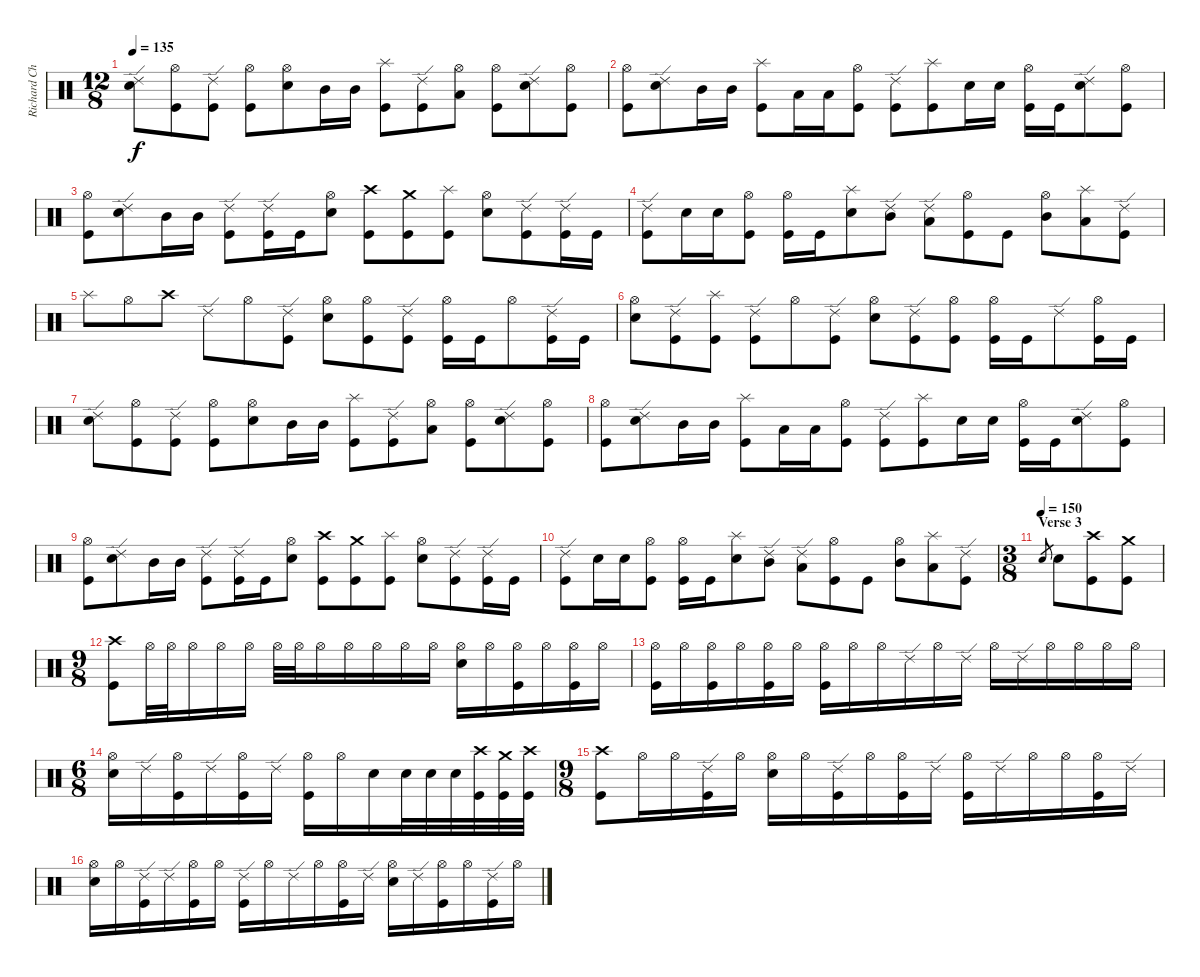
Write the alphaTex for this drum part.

\track ("Richard Christy " "Richard Ch") {instrument percussion}
\staff {score}
\articulation defaults
\ts (12 8)
\tempo 135
\clef neutral
\ks c
("Ride (edge) 2" "Electric Snare (hit)").8{dy f} ("Hi-Hat (open)" "Kick (hit)").8 ("Ride (edge) 2" "Kick (hit)").8 ("Hi-Hat (open)" "Kick (hit)").8 ("Hi-Hat (open)" "Electric Snare (hit)").8 "Mid Tom (hit)".16 "Mid Tom (hit)".16 ("Splash (hit)" "Kick (hit)").8 ("Ride (edge) 2" "Kick (hit)").8 ("Hi-Hat (open)" "Low Tom (hit)").8 ("Hi-Hat (open)" "Kick (hit)").8 ("Ride (edge) 2" "Electric Snare (hit)").8 ("Hi-Hat (open)" "Kick (hit)").8 |
("Hi-Hat (open)" "Kick (hit)").8 ("Ride (edge) 2" "Electric Snare (hit)").8 "Mid Tom (hit)".16 "Mid Tom (hit)".16 ("Splash (hit)" "Kick (hit)").8 "Low Tom (hit)".16 "Low Tom (hit)".16 ("Hi-Hat (open)" "Kick (hit)").8 ("Ride (edge) 2" "Kick (hit)").8 ("Splash (hit)" "Kick (hit)").8 "Electric Snare (hit)".16 "Electric Snare (hit)".16 ("Hi-Hat (open)" "Kick (hit)").16 "Kick (hit)".16 ("Ride (edge) 2" "Electric Snare (hit)").8 ("Hi-Hat (open)" "Kick (hit)").8 |
("Hi-Hat (open)" "Kick (hit)").8 ("Ride (edge) 2" "Electric Snare (hit)").8 "Mid Tom (hit)".16 "Mid Tom (hit)".16 ("Ride (edge) 2" "Kick (hit)").8 ("Ride (edge) 2" "Kick (hit)").16 "Kick (hit)".16 ("Hi-Hat (open)" "Electric Snare (hit)").8 ("Crash high (hit)" "Kick (hit)").8 ("Crash medium (hit)" "Kick (hit)").8 ("Splash (hit)" "Kick (hit)").8 ("Hi-Hat (open)" "Electric Snare (hit)").8 ("Ride (edge) 2" "Kick (hit)").8 ("Ride (edge) 2" "Kick (hit)").16 "Kick (hit)".16 |
("Ride (edge) 2" "Kick (hit)").8 "Electric Snare (hit)".16 "Electric Snare (hit)".16 ("Hi-Hat (open)" "Kick (hit)").8 ("Hi-Hat (open)" "Kick (hit)").16 "Kick (hit)".16 ("Splash (hit)" "Electric Snare (hit)").8 ("Ride (edge) 2" "Mid Tom (hit)").8 ("Ride (edge) 2" "Low Tom (hit)").8 ("Hi-Hat (open)" "Kick (hit)").8 "Kick (hit)".8 ("Hi-Hat (open)" "Mid Tom (hit)").8 ("Splash (hit)" "Low Tom (hit)").8 ("Ride (edge) 2" "Kick (hit)").8 |
"Splash (hit)".8 "Hi-Hat (open)".8 "Crash high (hit)".8 "Ride (edge) 2".8 "Hi-Hat (open)".8 ("Ride (edge) 2" "Kick (hit)").8 ("Hi-Hat (open)" "Electric Snare (hit)").8 ("Hi-Hat (open)" "Kick (hit)").8 ("Ride (edge) 2" "Kick (hit)").8 ("Hi-Hat (open)" "Kick (hit)").16 "Kick (hit)".16 "Hi-Hat (open)".8 ("Ride (edge) 2" "Kick (hit)").16 "Kick (hit)".16 |
("Hi-Hat (open)" "Electric Snare (hit)").8 ("Ride (edge) 2" "Kick (hit)").8 ("Splash (hit)" "Kick (hit)").8 ("Ride (edge) 2" "Kick (hit)").8 "Hi-Hat (open)".8 ("Ride (edge) 2" "Kick (hit)").8 ("Hi-Hat (open)" "Electric Snare (hit)").8 ("Ride (edge) 2" "Kick (hit)").8 ("Hi-Hat (open)" "Kick (hit)").8 ("Hi-Hat (open)" "Kick (hit)").16 "Kick (hit)".16 "Ride (edge) 2".8 ("Hi-Hat (open)" "Kick (hit)").16 "Kick (hit)".16 |
("Ride (edge) 2" "Electric Snare (hit)").8 ("Hi-Hat (open)" "Kick (hit)").8 ("Ride (edge) 2" "Kick (hit)").8 ("Hi-Hat (open)" "Kick (hit)").8 ("Hi-Hat (open)" "Electric Snare (hit)").8 "Mid Tom (hit)".16 "Mid Tom (hit)".16 ("Splash (hit)" "Kick (hit)").8 ("Ride (edge) 2" "Kick (hit)").8 ("Hi-Hat (open)" "Low Tom (hit)").8 ("Hi-Hat (open)" "Kick (hit)").8 ("Ride (edge) 2" "Electric Snare (hit)").8 ("Hi-Hat (open)" "Kick (hit)").8 |
("Hi-Hat (open)" "Kick (hit)").8 ("Ride (edge) 2" "Electric Snare (hit)").8 "Mid Tom (hit)".16 "Mid Tom (hit)".16 ("Splash (hit)" "Kick (hit)").8 "Low Tom (hit)".16 "Low Tom (hit)".16 ("Hi-Hat (open)" "Kick (hit)").8 ("Ride (edge) 2" "Kick (hit)").8 ("Splash (hit)" "Kick (hit)").8 "Electric Snare (hit)".16 "Electric Snare (hit)".16 ("Hi-Hat (open)" "Kick (hit)").16 "Kick (hit)".16 ("Ride (edge) 2" "Electric Snare (hit)").8 ("Hi-Hat (open)" "Kick (hit)").8 |
("Hi-Hat (open)" "Kick (hit)").8 ("Ride (edge) 2" "Electric Snare (hit)").8 "Mid Tom (hit)".16 "Mid Tom (hit)".16 ("Ride (edge) 2" "Kick (hit)").8 ("Ride (edge) 2" "Kick (hit)").16 "Kick (hit)".16 ("Hi-Hat (open)" "Electric Snare (hit)").8 ("Crash high (hit)" "Kick (hit)").8 ("Crash medium (hit)" "Kick (hit)").8 ("Splash (hit)" "Kick (hit)").8 ("Hi-Hat (open)" "Electric Snare (hit)").8 ("Ride (edge) 2" "Kick (hit)").8 ("Ride (edge) 2" "Kick (hit)").16 "Kick (hit)".16 |
("Ride (edge) 2" "Kick (hit)").8 "Electric Snare (hit)".16 "Electric Snare (hit)".16 ("Hi-Hat (open)" "Kick (hit)").8 ("Hi-Hat (open)" "Kick (hit)").16 "Kick (hit)".16 ("Splash (hit)" "Electric Snare (hit)").8 ("Ride (edge) 2" "Mid Tom (hit)").8 ("Ride (edge) 2" "Low Tom (hit)").8 ("Hi-Hat (open)" "Kick (hit)").8 "Kick (hit)".8 ("Hi-Hat (open)" "Mid Tom (hit)").8 ("Splash (hit)" "Low Tom (hit)").8 ("Ride (edge) 2" "Kick (hit)").8 |
\ts (3 8)
\section ("" "Verse 3")
\tempo (150)
"Electric Snare (hit)".8{gr} "Electric Snare (hit)".8 ("Crash high (hit)" "Kick (hit)").8 ("Crash medium (hit)" "Kick (hit)").8 |
\ts (9 8)
("Crash high (hit)" "Kick (hit)").8 "Hi-Hat (open)".32 "Hi-Hat (open)".32 "Hi-Hat (open)".16 "Hi-Hat (open)".16 "Hi-Hat (open)".16 "Hi-Hat (open)".32 "Hi-Hat (open)".32 "Hi-Hat (open)".16 "Hi-Hat (open)".16 "Hi-Hat (open)".16 "Hi-Hat (open)".16 "Hi-Hat (open)".16 ("Hi-Hat (open)" "Electric Snare (hit)").16 "Hi-Hat (open)".16 ("Hi-Hat (open)" "Kick (hit)").16 "Hi-Hat (open)".16 ("Hi-Hat (open)" "Kick (hit)").16 "Hi-Hat (open)".16 |
("Hi-Hat (open)" "Kick (hit)").16 "Hi-Hat (open)".16 ("Hi-Hat (open)" "Kick (hit)").16 "Hi-Hat (open)".16 ("Hi-Hat (open)" "Kick (hit)").16 "Hi-Hat (open)".16 ("Hi-Hat (open)" "Kick (hit)").16 "Hi-Hat (open)".16 "Hi-Hat (open)".16 "Ride (edge) 2".16 "Hi-Hat (open)".16 "Ride (edge) 2".16 "Hi-Hat (open)".16 "Ride (edge) 2".16 "Hi-Hat (open)".16 "Hi-Hat (open)".16 "Hi-Hat (open)".16 "Hi-Hat (open)".16 |
\ts (6 8)
("Hi-Hat (open)" "Electric Snare (hit)").16 "Ride (edge) 2".16 ("Hi-Hat (open)" "Kick (hit)").16 "Ride (edge) 2".16 ("Hi-Hat (open)" "Kick (hit)").16 "Ride (edge) 2".16 ("Hi-Hat (open)" "Kick (hit)").16 "Hi-Hat (open)".16 "Electric Snare (hit)".16 "Electric Snare (hit)".32 "Electric Snare (hit)".32 "Electric Snare (hit)".32 ("Crash high (hit)" "Kick (hit)").32 ("Crash medium (hit)" "Kick (hit)").32 ("Crash high (hit)" "Kick (hit)").32 |
\ts (9 8)
("Crash high (hit)" "Kick (hit)").8 "Hi-Hat (open)".16 "Hi-Hat (open)".16 ("Ride (edge) 2" "Kick (hit)").16 "Hi-Hat (open)".16 ("Hi-Hat (open)" "Electric Snare (hit)").16 "Hi-Hat (open)".16 ("Ride (edge) 2" "Kick (hit)").16 "Hi-Hat (open)".16 ("Hi-Hat (open)" "Kick (hit)").16 "Ride (edge) 2".16 ("Hi-Hat (open)" "Kick (hit)").16 "Ride (edge) 2".16 "Hi-Hat (open)".16 "Hi-Hat (open)".16 ("Hi-Hat (open)" "Kick (hit)").16 "Ride (edge) 2".16 |
("Hi-Hat (open)" "Electric Snare (hit)").16 "Hi-Hat (open)".16 ("Ride (edge) 2" "Kick (hit)").16 "Ride (edge) 2".16 ("Hi-Hat (open)" "Kick (hit)").16 "Hi-Hat (open)".16 ("Ride (edge) 2" "Kick (hit)").16 "Hi-Hat (open)".16 "Ride (edge) 2".16 "Hi-Hat (open)".16 ("Hi-Hat (open)" "Kick (hit)").16 "Ride (edge) 2".16 ("Hi-Hat (open)" "Electric Snare (hit)").16 "Ride (edge) 2".16 ("Hi-Hat (open)" "Kick (hit)").16 "Hi-Hat (open)".16 ("Ride (edge) 2" "Kick (hit)").16 "Hi-Hat (open)".16
